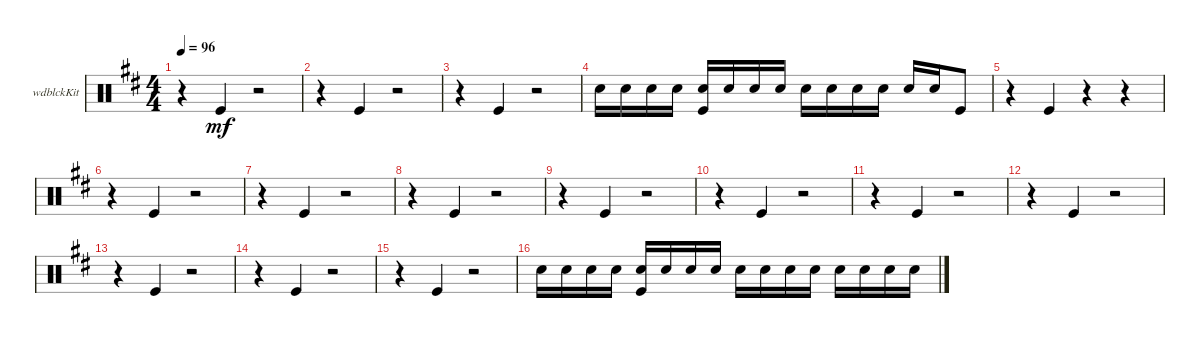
\defaultSystemsLayout 4
\bracketExtendMode groupsimilarinstruments
\firstSystemTrackNameOrientation horizontal
\otherSystemsTrackNameOrientation horizontal
\track ("Woodblock" "wdblckKit") {instrument percussion}
\staff {score}
\articulation defaults
\ts (4 4)
\tempo 96
\clef neutral
\ks d
r.4{dy mf} "Kick (hit)".4 r.2 |
r.4 "Kick (hit)".4 r.2 |
r.4 "Kick (hit)".4 r.2 |
"Snare (hit) 2".16 "Snare (hit) 2".16 "Snare (hit) 2".16 "Snare (hit) 2".16 ("Snare (hit) 2" "Kick (hit)").16 "Snare (hit) 2".16 "Snare (hit) 2".16 "Snare (hit) 2".16 "Snare (hit) 2".16 "Snare (hit) 2".16 "Snare (hit) 2".16 "Snare (hit) 2".16 "Snare (hit) 2".16 "Snare (hit) 2".16 "Kick (hit)".8 |
r.4 "Kick (hit)".4 r.4 r.4 |
r.4 "Kick (hit)".4 r.2 |
r.4 "Kick (hit)".4 r.2 |
r.4 "Kick (hit)".4 r.2 |
r.4 "Kick (hit)".4 r.2 |
r.4 "Kick (hit)".4 r.2 |
r.4 "Kick (hit)".4 r.2 |
r.4 "Kick (hit)".4 r.2 |
r.4 "Kick (hit)".4 r.2 |
r.4 "Kick (hit)".4 r.2 |
r.4 "Kick (hit)".4 r.2 |
"Snare (hit) 2".16 "Snare (hit) 2".16 "Snare (hit) 2".16 "Snare (hit) 2".16 ("Snare (hit) 2" "Kick (hit)").16 "Snare (hit) 2".16 "Snare (hit) 2".16 "Snare (hit) 2".16 "Snare (hit) 2".16 "Snare (hit) 2".16 "Snare (hit) 2".16 "Snare (hit) 2".16 "Snare (hit) 2".16 "Snare (hit) 2".16 "Snare (hit) 2".16 "Snare (hit) 2".16
